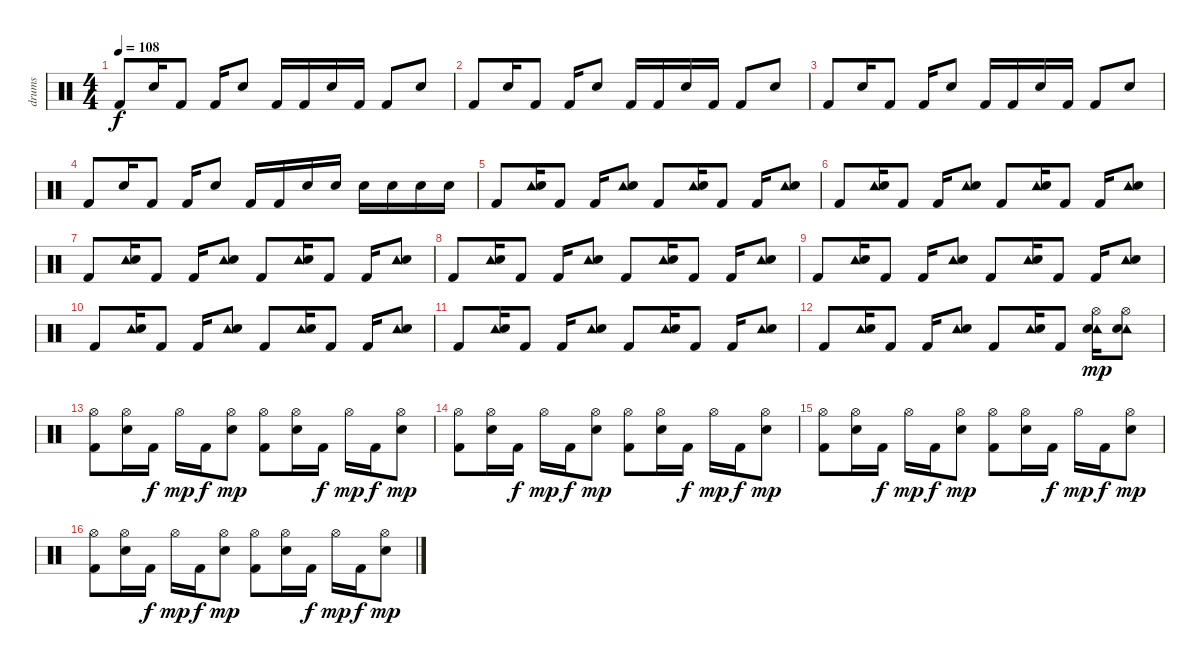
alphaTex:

\track ("drums" "drums") {instrument percussion}
\staff {score}
\articulation defaults
\ts (4 4)
\tempo 108
\clef neutral
\ks c "Kick (hit) 2".8{dy f} "Snare (hit) 2".16 "Kick (hit) 2".8 "Kick (hit) 2".16 "Snare (hit) 2".8 "Kick (hit) 2".16 "Kick (hit) 2".16 "Snare (hit) 2".16 "Kick (hit) 2".16 "Kick (hit) 2".8 "Snare (hit) 2".8
|
"Kick (hit) 2".8 "Snare (hit) 2".16 "Kick (hit) 2".8 "Kick (hit) 2".16 "Snare (hit) 2".8 "Kick (hit) 2".16 "Kick (hit) 2".16 "Snare (hit) 2".16 "Kick (hit) 2".16 "Kick (hit) 2".8 "Snare (hit) 2".8 |
"Kick (hit) 2".8 "Snare (hit) 2".16 "Kick (hit) 2".8 "Kick (hit) 2".16 "Snare (hit) 2".8 "Kick (hit) 2".16 "Kick (hit) 2".16 "Snare (hit) 2".16 "Kick (hit) 2".16 "Kick (hit) 2".8 "Snare (hit) 2".8 |
"Kick (hit) 2".8 "Snare (hit) 2".16 "Kick (hit) 2".8 "Kick (hit) 2".16 "Snare (hit) 2".8 "Kick (hit) 2".16 "Kick (hit) 2".16 "Snare (hit) 2".16 "Snare (hit) 2".16 "Snare (hit) 2".16 "Snare (hit) 2".16 "Snare (hit) 2".16 "Snare (hit) 2".16 |
"Kick (hit) 2".8 ("Tambourine (hit)" "Snare (hit) 2").16 "Kick (hit) 2".8 "Kick (hit) 2".16 ("Tambourine (hit)" "Snare (hit) 2").8 "Kick (hit) 2".8 ("Tambourine (hit)" "Snare (hit) 2").16 "Kick (hit) 2".8 "Kick (hit) 2".16 ("Tambourine (hit)" "Snare (hit) 2").8 |
"Kick (hit) 2".8 ("Tambourine (hit)" "Snare (hit) 2").16 "Kick (hit) 2".8 "Kick (hit) 2".16 ("Tambourine (hit)" "Snare (hit) 2").8 "Kick (hit) 2".8 ("Tambourine (hit)" "Snare (hit) 2").16 "Kick (hit) 2".8 "Kick (hit) 2".16 ("Tambourine (hit)" "Snare (hit) 2").8 |
"Kick (hit) 2".8 ("Tambourine (hit)" "Snare (hit) 2").16 "Kick (hit) 2".8 "Kick (hit) 2".16 ("Tambourine (hit)" "Snare (hit) 2").8 "Kick (hit) 2".8 ("Tambourine (hit)" "Snare (hit) 2").16 "Kick (hit) 2".8 "Kick (hit) 2".16 ("Tambourine (hit)" "Snare (hit) 2").8 |
"Kick (hit) 2".8 ("Tambourine (hit)" "Snare (hit) 2").16 "Kick (hit) 2".8 "Kick (hit) 2".16 ("Tambourine (hit)" "Snare (hit) 2").8 "Kick (hit) 2".8 ("Tambourine (hit)" "Snare (hit) 2").16 "Kick (hit) 2".8 "Kick (hit) 2".16 ("Tambourine (hit)" "Snare (hit) 2").8 |
"Kick (hit) 2".8 ("Tambourine (hit)" "Snare (hit) 2").16 "Kick (hit) 2".8 "Kick (hit) 2".16 ("Tambourine (hit)" "Snare (hit) 2").8 "Kick (hit) 2".8 ("Tambourine (hit)" "Snare (hit) 2").16 "Kick (hit) 2".8 "Kick (hit) 2".16 ("Tambourine (hit)" "Snare (hit) 2").8 |
"Kick (hit) 2".8 ("Tambourine (hit)" "Snare (hit) 2").16 "Kick (hit) 2".8 "Kick (hit) 2".16 ("Tambourine (hit)" "Snare (hit) 2").8 "Kick (hit) 2".8 ("Tambourine (hit)" "Snare (hit) 2").16 "Kick (hit) 2".8 "Kick (hit) 2".16 ("Tambourine (hit)" "Snare (hit) 2").8 |
"Kick (hit) 2".8 ("Tambourine (hit)" "Snare (hit) 2").16 "Kick (hit) 2".8 "Kick (hit) 2".16 ("Tambourine (hit)" "Snare (hit) 2").8 "Kick (hit) 2".8 ("Tambourine (hit)" "Snare (hit) 2").16 "Kick (hit) 2".8 "Kick (hit) 2".16 ("Tambourine (hit)" "Snare (hit) 2").8 |
"Kick (hit) 2".8 ("Tambourine (hit)" "Snare (hit) 2").16 "Kick (hit) 2".8 "Kick (hit) 2".16 ("Tambourine (hit)" "Snare (hit) 2").8 "Kick (hit) 2".8 ("Tambourine (hit)" "Snare (hit) 2").16 "Kick (hit) 2".8 ("Tambourine (hit)" "Hi-Hat (open)" "Snare (hit) 2").16{dy mp} ("Tambourine (hit)" "Hi-Hat (open)" "Snare (hit) 2").8 |
("Hi-Hat (open)" "Kick (hit) 2").8 ("Hi-Hat (open)" "Snare (hit) 2").16 "Kick (hit) 2".16{dy f} "Hi-Hat (open)".16{dy mp} "Kick (hit) 2".16{dy f} ("Hi-Hat (open)" "Snare (hit) 2").8{dy mp} ("Hi-Hat (open)" "Kick (hit) 2").8 ("Hi-Hat (open)" "Snare (hit) 2").16 "Kick (hit) 2".16{dy f} "Hi-Hat (open)".16{dy mp} "Kick (hit) 2".16{dy f} ("Hi-Hat (open)" "Snare (hit) 2").8{dy mp} |
("Hi-Hat (open)" "Kick (hit) 2").8 ("Hi-Hat (open)" "Snare (hit) 2").16 "Kick (hit) 2".16{dy f} "Hi-Hat (open)".16{dy mp} "Kick (hit) 2".16{dy f} ("Hi-Hat (open)" "Snare (hit) 2").8{dy mp} ("Hi-Hat (open)" "Kick (hit) 2").8 ("Hi-Hat (open)" "Snare (hit) 2").16 "Kick (hit) 2".16{dy f} "Hi-Hat (open)".16{dy mp} "Kick (hit) 2".16{dy f} ("Hi-Hat (open)" "Snare (hit) 2").8{dy mp} |
("Hi-Hat (open)" "Kick (hit) 2").8 ("Hi-Hat (open)" "Snare (hit) 2").16 "Kick (hit) 2".16{dy f} "Hi-Hat (open)".16{dy mp} "Kick (hit) 2".16{dy f} ("Hi-Hat (open)" "Snare (hit) 2").8{dy mp} ("Hi-Hat (open)" "Kick (hit) 2").8 ("Hi-Hat (open)" "Snare (hit) 2").16 "Kick (hit) 2".16{dy f} "Hi-Hat (open)".16{dy mp} "Kick (hit) 2".16{dy f} ("Hi-Hat (open)" "Snare (hit) 2").8{dy mp} |
("Hi-Hat (open)" "Kick (hit) 2").8 ("Hi-Hat (open)" "Snare (hit) 2").16 "Kick (hit) 2".16{dy f} "Hi-Hat (open)".16{dy mp} "Kick (hit) 2".16{dy f} ("Hi-Hat (open)" "Snare (hit) 2").8{dy mp} ("Hi-Hat (open)" "Kick (hit) 2").8 ("Hi-Hat (open)" "Snare (hit) 2").16 "Kick (hit) 2".16{dy f} "Hi-Hat (open)".16{dy mp} "Kick (hit) 2".16{dy f} ("Hi-Hat (open)" "Snare (hit) 2").8{dy mp}
